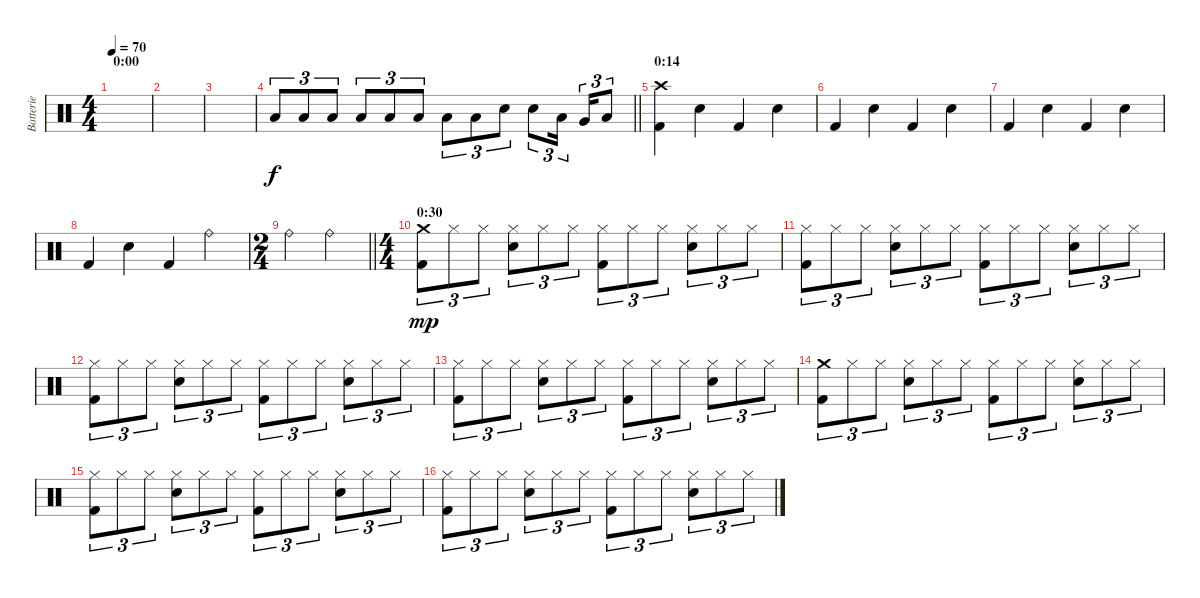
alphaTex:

\track ("Batterie" "Batterie") {instrument percussion}
\staff {score}
\articulation defaults
\ts (4 4)
\section ("" "0:00")
\tempo 70
\clef neutral
\ks c
|
|
|
\barLineRight lightlight "Low Floor Tom (hit)".8{tu (3 2) volume 13} "Low Floor Tom (hit)".8{tu (3 2)} "Low Floor Tom (hit)".8{tu (3 2)} "Low Floor Tom (hit)".8{tu (3 2)} "Low Floor Tom (hit)".8{tu (3 2)} "Low Floor Tom (hit)".8{tu (3 2)} "Low Floor Tom (hit)".8{tu (3 2)} "Low Floor Tom (hit)".8{tu (3 2)} "Snare (hit) 2".8{tu (3 2)} "Snare (hit) 2".8{tu (3 2)} "Low Floor Tom (hit)".16{tu (3 2) beam splitsecondary} "Very Low Tom (hit)".16{tu (3 2)} "Low Floor Tom (hit)".8{tu (3 2)}
|
\section ("" "0:14")
("Crash high (hit)" "Kick (hit) 2").4 "Snare (hit) 2".4 "Kick (hit) 2".4 "Snare (hit) 2".4 |
"Kick (hit) 2".4 "Snare (hit) 2".4 "Kick (hit) 2".4 "Snare (hit) 2".4 |
"Kick (hit) 2".4 "Snare (hit) 2".4 "Kick (hit) 2".4 "Snare (hit) 2".4 |
"Kick (hit) 2".4 "Snare (hit) 2".4 "Kick (hit) 2".4 "Ride (bell)".4 |
\ts (2 4)
\barLineRight lightlight "Ride (bell)".4 "Ride (bell)".4
|
\ts (4 4)
\section ("" "0:30")
("Crash medium (hit)" "Kick (hit) 2").8{tu (3 2) dy mp} "Hi-Hat (closed)".8{tu (3 2)} "Hi-Hat (closed)".8{tu (3 2)} ("Hi-Hat (closed)" "Snare (hit) 2").8{tu (3 2)} "Hi-Hat (closed)".8{tu (3 2)} "Hi-Hat (closed)".8{tu (3 2)} ("Hi-Hat (closed)" "Kick (hit) 2").8{tu (3 2)} "Hi-Hat (closed)".8{tu (3 2)} "Hi-Hat (closed)".8{tu (3 2)} ("Hi-Hat (closed)" "Snare (hit) 2").8{tu (3 2)} "Hi-Hat (closed)".8{tu (3 2)} "Hi-Hat (closed)".8{tu (3 2)} |
("Hi-Hat (closed)" "Kick (hit) 2").8{tu (3 2)} "Hi-Hat (closed)".8{tu (3 2)} "Hi-Hat (closed)".8{tu (3 2)} ("Hi-Hat (closed)" "Snare (hit) 2").8{tu (3 2)} "Hi-Hat (closed)".8{tu (3 2)} "Hi-Hat (closed)".8{tu (3 2)} ("Hi-Hat (closed)" "Kick (hit) 2").8{tu (3 2)} "Hi-Hat (closed)".8{tu (3 2)} "Hi-Hat (closed)".8{tu (3 2)} ("Hi-Hat (closed)" "Snare (hit) 2").8{tu (3 2)} "Hi-Hat (closed)".8{tu (3 2)} "Hi-Hat (closed)".8{tu (3 2)} |
("Hi-Hat (closed)" "Kick (hit) 2").8{tu (3 2)} "Hi-Hat (closed)".8{tu (3 2)} "Hi-Hat (closed)".8{tu (3 2)} ("Hi-Hat (closed)" "Snare (hit) 2").8{tu (3 2)} "Hi-Hat (closed)".8{tu (3 2)} "Hi-Hat (closed)".8{tu (3 2)} ("Hi-Hat (closed)" "Kick (hit) 2").8{tu (3 2)} "Hi-Hat (closed)".8{tu (3 2)} "Hi-Hat (closed)".8{tu (3 2)} ("Hi-Hat (closed)" "Snare (hit) 2").8{tu (3 2)} "Hi-Hat (closed)".8{tu (3 2)} "Hi-Hat (closed)".8{tu (3 2)} |
("Hi-Hat (closed)" "Kick (hit) 2").8{tu (3 2)} "Hi-Hat (closed)".8{tu (3 2)} "Hi-Hat (closed)".8{tu (3 2)} ("Hi-Hat (closed)" "Snare (hit) 2").8{tu (3 2)} "Hi-Hat (closed)".8{tu (3 2)} "Hi-Hat (closed)".8{tu (3 2)} ("Hi-Hat (closed)" "Kick (hit) 2").8{tu (3 2)} "Hi-Hat (closed)".8{tu (3 2)} "Hi-Hat (closed)".8{tu (3 2)} ("Hi-Hat (closed)" "Snare (hit) 2").8{tu (3 2)} "Hi-Hat (closed)".8{tu (3 2)} "Hi-Hat (closed)".8{tu (3 2)} |
("Crash medium (hit)" "Kick (hit) 2").8{tu (3 2)} "Hi-Hat (closed)".8{tu (3 2)} "Hi-Hat (closed)".8{tu (3 2)} ("Hi-Hat (closed)" "Snare (hit) 2").8{tu (3 2)} "Hi-Hat (closed)".8{tu (3 2)} "Hi-Hat (closed)".8{tu (3 2)} ("Hi-Hat (closed)" "Kick (hit) 2").8{tu (3 2)} "Hi-Hat (closed)".8{tu (3 2)} "Hi-Hat (closed)".8{tu (3 2)} ("Hi-Hat (closed)" "Snare (hit) 2").8{tu (3 2)} "Hi-Hat (closed)".8{tu (3 2)} "Hi-Hat (closed)".8{tu (3 2)} |
("Hi-Hat (closed)" "Kick (hit) 2").8{tu (3 2)} "Hi-Hat (closed)".8{tu (3 2)} "Hi-Hat (closed)".8{tu (3 2)} ("Hi-Hat (closed)" "Snare (hit) 2").8{tu (3 2)} "Hi-Hat (closed)".8{tu (3 2)} "Hi-Hat (closed)".8{tu (3 2)} ("Hi-Hat (closed)" "Kick (hit) 2").8{tu (3 2)} "Hi-Hat (closed)".8{tu (3 2)} "Hi-Hat (closed)".8{tu (3 2)} ("Hi-Hat (closed)" "Snare (hit) 2").8{tu (3 2)} "Hi-Hat (closed)".8{tu (3 2)} "Hi-Hat (closed)".8{tu (3 2)} |
("Hi-Hat (closed)" "Kick (hit) 2").8{tu (3 2)} "Hi-Hat (closed)".8{tu (3 2)} "Hi-Hat (closed)".8{tu (3 2)} ("Hi-Hat (closed)" "Snare (hit) 2").8{tu (3 2)} "Hi-Hat (closed)".8{tu (3 2)} "Hi-Hat (closed)".8{tu (3 2)} ("Hi-Hat (closed)" "Kick (hit) 2").8{tu (3 2)} "Hi-Hat (closed)".8{tu (3 2)} "Hi-Hat (closed)".8{tu (3 2)} ("Hi-Hat (closed)" "Snare (hit) 2").8{tu (3 2)} "Hi-Hat (closed)".8{tu (3 2)} "Hi-Hat (closed)".8{tu (3 2)}
